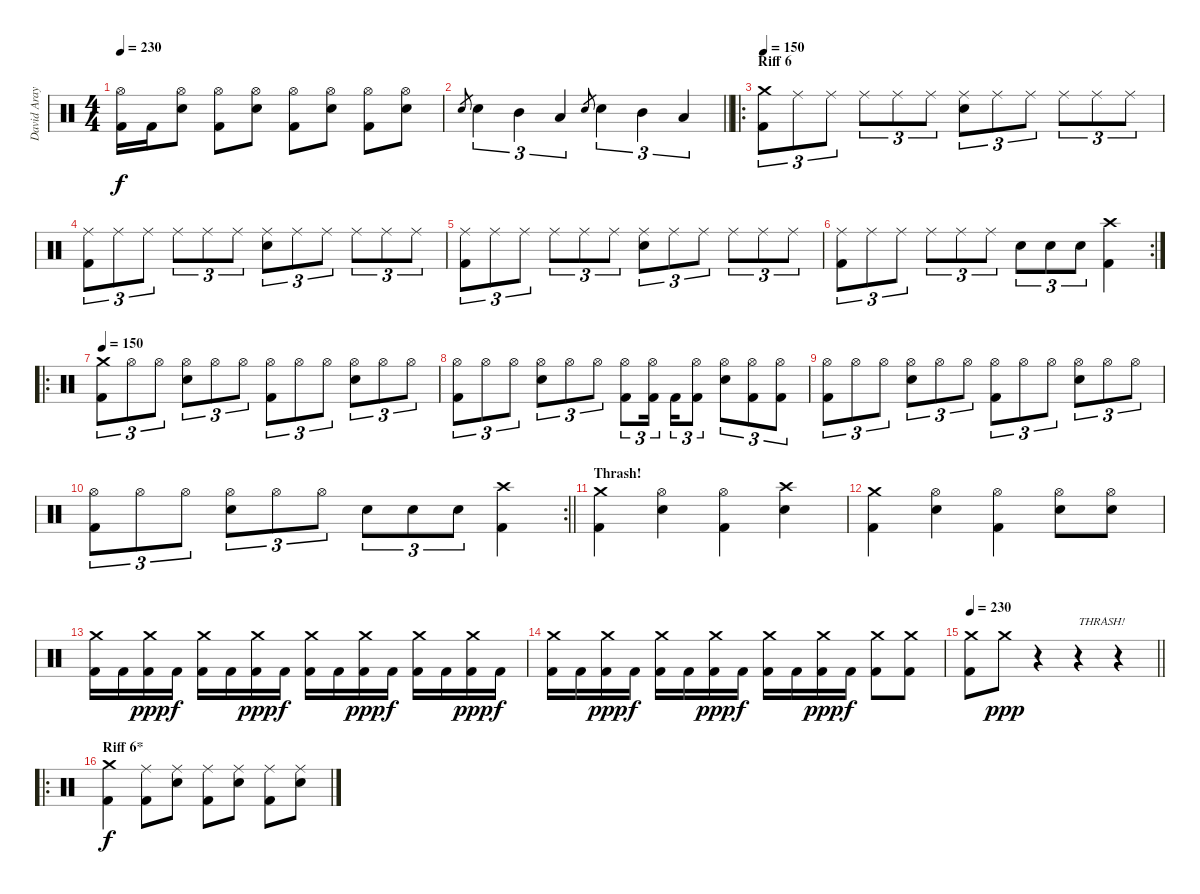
\track ("David Araya" "David Aray") {instrument percussion}
\staff {score}
\articulation defaults
\ts (4 4)
\tempo 230
\clef neutral
\ks c
("Hi-Hat (open)" "Kick (hit) 2").16{dy f} "Kick (hit) 2".16 ("Hi-Hat (open)" "Electric Snare (hit)").8 ("Hi-Hat (open)" "Kick (hit) 2").8 ("Hi-Hat (open)" "Electric Snare (hit)").8 ("Hi-Hat (open)" "Kick (hit) 2").8 ("Hi-Hat (open)" "Electric Snare (hit)").8 ("Hi-Hat (open)" "Kick (hit) 2").8 ("Hi-Hat (open)" "Electric Snare (hit)").8 |
\barLineRight lightlight "Electric Snare (hit)".8{gr} "Electric Snare (hit)".4{tu (3 2)} "Mid Tom (hit)".4{tu (3 2)} "Low Tom (hit)".4{tu (3 2)} "Electric Snare (hit)".8{gr} "Electric Snare (hit)".4{tu (3 2)} "Mid Tom (hit)".4{tu (3 2)} "Low Tom (hit)".4{tu (3 2)}
|
\ro
\section ("" "Riff 6")
\tempo 160
\tempo 150
("Crash medium (hit)" "Kick (hit) 2").8{tu (3 2)} "Ride (middle)".8{tu (3 2)} "Ride (middle)".8{tu (3 2)} "Ride (middle)".8{tu (3 2)} "Ride (middle)".8{tu (3 2)} "Ride (middle)".8{tu (3 2)} ("Ride (middle)" "Electric Snare (hit)").8{tu (3 2)} "Ride (middle)".8{tu (3 2)} "Ride (middle)".8{tu (3 2)} "Ride (middle)".8{tu (3 2)} "Ride (middle)".8{tu (3 2)} "Ride (middle)".8{tu (3 2)} |
("Ride (middle)" "Kick (hit) 2").8{tu (3 2)} "Ride (middle)".8{tu (3 2)} "Ride (middle)".8{tu (3 2)} "Ride (middle)".8{tu (3 2)} "Ride (middle)".8{tu (3 2)} "Ride (middle)".8{tu (3 2)} ("Ride (middle)" "Electric Snare (hit)").8{tu (3 2)} "Ride (middle)".8{tu (3 2)} "Ride (middle)".8{tu (3 2)} "Ride (middle)".8{tu (3 2)} "Ride (middle)".8{tu (3 2)} "Ride (middle)".8{tu (3 2)} |
("Ride (middle)" "Kick (hit) 2").8{tu (3 2)} "Ride (middle)".8{tu (3 2)} "Ride (middle)".8{tu (3 2)} "Ride (middle)".8{tu (3 2)} "Ride (middle)".8{tu (3 2)} "Ride (middle)".8{tu (3 2)} ("Ride (middle)" "Electric Snare (hit)").8{tu (3 2)} "Ride (middle)".8{tu (3 2)} "Ride (middle)".8{tu (3 2)} "Ride (middle)".8{tu (3 2)} "Ride (middle)".8{tu (3 2)} "Ride (middle)".8{tu (3 2)} |
\rc 2
("Ride (middle)" "Kick (hit) 2").8{tu (3 2)} "Ride (middle)".8{tu (3 2)} "Ride (middle)".8{tu (3 2)} "Ride (middle)".8{tu (3 2)} "Ride (middle)".8{tu (3 2)} "Ride (middle)".8{tu (3 2)} "Electric Snare (hit)".8{tu (3 2)} "Electric Snare (hit)".8{tu (3 2)} "Electric Snare (hit)".8{tu (3 2)} ("Crash high (hit)" "Kick (hit) 2").4 |
\ro
\tempo 150
("Crash medium (hit)" "Kick (hit) 2").8{tu (3 2)} "Hi-Hat (open)".8{tu (3 2)} "Hi-Hat (open)".8{tu (3 2)} ("Hi-Hat (open)" "Electric Snare (hit)").8{tu (3 2)} "Hi-Hat (open)".8{tu (3 2)} "Hi-Hat (open)".8{tu (3 2)} ("Hi-Hat (open)" "Kick (hit) 2").8{tu (3 2)} "Hi-Hat (open)".8{tu (3 2)} "Hi-Hat (open)".8{tu (3 2)} ("Hi-Hat (open)" "Electric Snare (hit)").8{tu (3 2)} "Hi-Hat (open)".8{tu (3 2)} "Hi-Hat (open)".8{tu (3 2)} |
("Hi-Hat (open)" "Kick (hit) 2").8{tu (3 2)} "Hi-Hat (open)".8{tu (3 2)} "Hi-Hat (open)".8{tu (3 2)} ("Hi-Hat (open)" "Electric Snare (hit)").8{tu (3 2)} "Hi-Hat (open)".8{tu (3 2)} "Hi-Hat (open)".8{tu (3 2)} ("Hi-Hat (open)" "Kick (hit) 2").8{tu (3 2)} ("Hi-Hat (open)" "Kick (hit) 2").16{tu (3 2) beam splitsecondary} "Kick (hit) 2".16{tu (3 2)} ("Hi-Hat (open)" "Kick (hit) 2").8{tu (3 2)} ("Hi-Hat (open)" "Electric Snare (hit)").8{tu (3 2)} ("Hi-Hat (open)" "Kick (hit) 2").8{tu (3 2)} ("Hi-Hat (open)" "Kick (hit) 2").8{tu (3 2)} |
("Hi-Hat (open)" "Kick (hit) 2").8{tu (3 2)} "Hi-Hat (open)".8{tu (3 2)} "Hi-Hat (open)".8{tu (3 2)} ("Hi-Hat (open)" "Electric Snare (hit)").8{tu (3 2)} "Hi-Hat (open)".8{tu (3 2)} "Hi-Hat (open)".8{tu (3 2)} ("Hi-Hat (open)" "Kick (hit) 2").8{tu (3 2)} "Hi-Hat (open)".8{tu (3 2)} "Hi-Hat (open)".8{tu (3 2)} ("Hi-Hat (open)" "Electric Snare (hit)").8{tu (3 2)} "Hi-Hat (open)".8{tu (3 2)} "Hi-Hat (open)".8{tu (3 2)} |
\rc 2
\barLineRight lightlight
("Hi-Hat (open)" "Kick (hit) 2").8{tu (3 2)} "Hi-Hat (open)".8{tu (3 2)} "Hi-Hat (open)".8{tu (3 2)} ("Hi-Hat (open)" "Electric Snare (hit)").8{tu (3 2)} "Hi-Hat (open)".8{tu (3 2)} "Hi-Hat (open)".8{tu (3 2)} "Electric Snare (hit)".8{tu (3 2)} "Electric Snare (hit)".8{tu (3 2)} "Electric Snare (hit)".8{tu (3 2)} ("Crash high (hit)" "Kick (hit) 2").4 |
\section ("" "Thrash!")
("Crash medium (hit)" "Kick (hit) 2").4 ("Hi-Hat (open)" "Electric Snare (hit)").4 ("Hi-Hat (open)" "Kick (hit) 2").4 ("Crash high (hit)" "Electric Snare (hit)").4 |
("Crash medium (hit)" "Kick (hit) 2").4 ("Hi-Hat (open)" "Electric Snare (hit)").4 ("Hi-Hat (open)" "Kick (hit) 2").4 ("Hi-Hat (open)" "Electric Snare (hit)").8 ("Hi-Hat (open)" "Electric Snare (hit)").8 |
("Crash medium (hit)" "Kick (hit) 2").16 "Kick (hit) 2".16 ("Crash medium (hit)" "Kick (hit) 2").16{dy ppp} "Kick (hit) 2".16{dy f} ("Crash medium (hit)" "Kick (hit) 2").16 "Kick (hit) 2".16 ("Crash medium (hit)" "Kick (hit) 2").16{dy ppp} "Kick (hit) 2".16{dy f} ("Crash medium (hit)" "Kick (hit) 2").16 "Kick (hit) 2".16 ("Crash medium (hit)" "Kick (hit) 2").16{dy ppp} "Kick (hit) 2".16{dy f} ("Crash medium (hit)" "Kick (hit) 2").16 "Kick (hit) 2".16 ("Crash medium (hit)" "Kick (hit) 2").16{dy ppp} "Kick (hit) 2".16{dy f} |
("Crash medium (hit)" "Kick (hit) 2").16 "Kick (hit) 2".16 ("Crash medium (hit)" "Kick (hit) 2").16{dy ppp} "Kick (hit) 2".16{dy f} ("Crash medium (hit)" "Kick (hit) 2").16 "Kick (hit) 2".16 ("Crash medium (hit)" "Kick (hit) 2").16{dy ppp} "Kick (hit) 2".16{dy f} ("Crash medium (hit)" "Kick (hit) 2").16 "Kick (hit) 2".16 ("Crash medium (hit)" "Kick (hit) 2").16{dy ppp} "Kick (hit) 2".16{dy f} ("Crash medium (hit)" "Kick (hit) 2").8 ("Crash medium (hit)" "Kick (hit) 2").8 |
\tempo 230
\barLineRight lightlight
("Crash medium (hit)" "Kick (hit) 2").8 "Crash medium (hit)".8{dy ppp} r.4 r.4{txt "THRASH!"} r.4 |
\ro
\section ("" "Riff 6*")
("Crash medium (hit)" "Kick (hit) 2").4{dy f} ("Ride (middle)" "Kick (hit) 2").8 ("Ride (middle)" "Electric Snare (hit)").8 ("Ride (middle)" "Kick (hit) 2").8 ("Ride (middle)" "Electric Snare (hit)").8 ("Ride (middle)" "Kick (hit) 2").8 ("Ride (middle)" "Electric Snare (hit)").8
